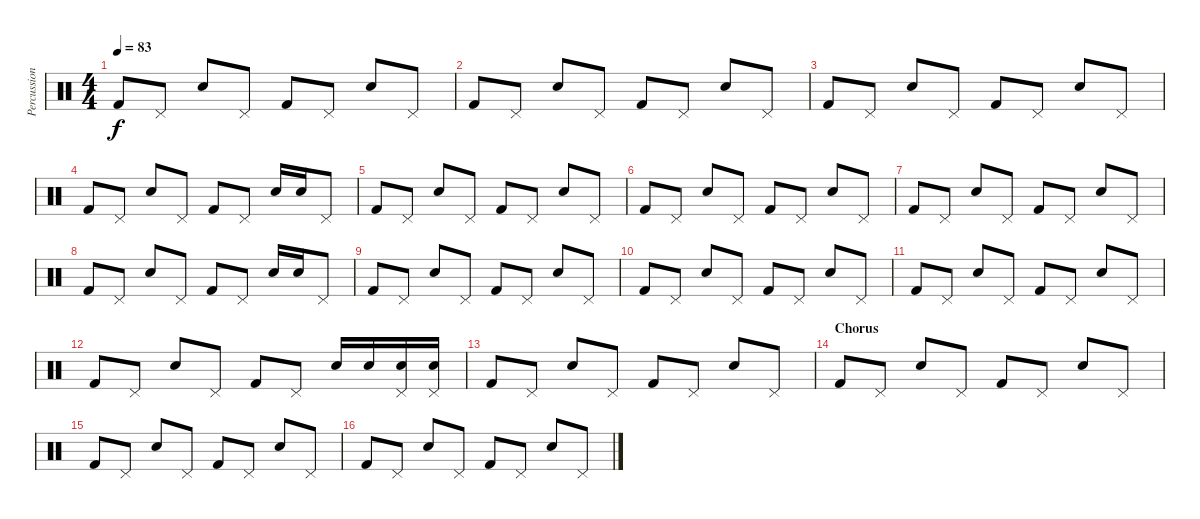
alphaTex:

\track ("Percussion" "Percussion") {instrument percussion}
\staff {score}
\articulation defaults
\ts (4 4)
\tempo 83
\clef neutral
\ks c "Kick (hit) 2".8{dy f} "Pedal Hi-Hat (hit)".8 "Electric Snare (hit)".8 "Pedal Hi-Hat (hit)".8 "Kick (hit) 2".8 "Pedal Hi-Hat (hit)".8 "Electric Snare (hit)".8 "Pedal Hi-Hat (hit)".8
|
"Kick (hit) 2".8 "Pedal Hi-Hat (hit)".8 "Electric Snare (hit)".8 "Pedal Hi-Hat (hit)".8 "Kick (hit) 2".8 "Pedal Hi-Hat (hit)".8 "Electric Snare (hit)".8 "Pedal Hi-Hat (hit)".8 |
"Kick (hit) 2".8 "Pedal Hi-Hat (hit)".8 "Electric Snare (hit)".8 "Pedal Hi-Hat (hit)".8 "Kick (hit) 2".8 "Pedal Hi-Hat (hit)".8 "Electric Snare (hit)".8 "Pedal Hi-Hat (hit)".8 |
"Kick (hit) 2".8 "Pedal Hi-Hat (hit)".8 "Electric Snare (hit)".8 "Pedal Hi-Hat (hit)".8 "Kick (hit) 2".8 "Pedal Hi-Hat (hit)".8 "Electric Snare (hit)".16 "Electric Snare (hit)".16 "Pedal Hi-Hat (hit)".8 |
"Kick (hit) 2".8 "Pedal Hi-Hat (hit)".8 "Electric Snare (hit)".8 "Pedal Hi-Hat (hit)".8 "Kick (hit) 2".8 "Pedal Hi-Hat (hit)".8 "Electric Snare (hit)".8 "Pedal Hi-Hat (hit)".8 |
"Kick (hit) 2".8 "Pedal Hi-Hat (hit)".8 "Electric Snare (hit)".8 "Pedal Hi-Hat (hit)".8 "Kick (hit) 2".8 "Pedal Hi-Hat (hit)".8 "Electric Snare (hit)".8 "Pedal Hi-Hat (hit)".8 |
"Kick (hit) 2".8 "Pedal Hi-Hat (hit)".8 "Electric Snare (hit)".8 "Pedal Hi-Hat (hit)".8 "Kick (hit) 2".8 "Pedal Hi-Hat (hit)".8 "Electric Snare (hit)".8 "Pedal Hi-Hat (hit)".8 |
"Kick (hit) 2".8 "Pedal Hi-Hat (hit)".8 "Electric Snare (hit)".8 "Pedal Hi-Hat (hit)".8 "Kick (hit) 2".8 "Pedal Hi-Hat (hit)".8 "Electric Snare (hit)".16 "Electric Snare (hit)".16 "Pedal Hi-Hat (hit)".8 |
"Kick (hit) 2".8 "Pedal Hi-Hat (hit)".8 "Electric Snare (hit)".8 "Pedal Hi-Hat (hit)".8 "Kick (hit) 2".8 "Pedal Hi-Hat (hit)".8 "Electric Snare (hit)".8 "Pedal Hi-Hat (hit)".8 |
"Kick (hit) 2".8 "Pedal Hi-Hat (hit)".8 "Electric Snare (hit)".8 "Pedal Hi-Hat (hit)".8 "Kick (hit) 2".8 "Pedal Hi-Hat (hit)".8 "Electric Snare (hit)".8 "Pedal Hi-Hat (hit)".8 |
"Kick (hit) 2".8 "Pedal Hi-Hat (hit)".8 "Electric Snare (hit)".8 "Pedal Hi-Hat (hit)".8 "Kick (hit) 2".8 "Pedal Hi-Hat (hit)".8 "Electric Snare (hit)".8 "Pedal Hi-Hat (hit)".8 |
"Kick (hit) 2".8 "Pedal Hi-Hat (hit)".8 "Electric Snare (hit)".8 "Pedal Hi-Hat (hit)".8 "Kick (hit) 2".8 "Pedal Hi-Hat (hit)".8 "Electric Snare (hit)".16 "Electric Snare (hit)".16 ("Pedal Hi-Hat (hit)" "Electric Snare (hit)").16 ("Pedal Hi-Hat (hit)" "Electric Snare (hit)").16 |
"Kick (hit) 2".8 "Pedal Hi-Hat (hit)".8 "Electric Snare (hit)".8 "Pedal Hi-Hat (hit)".8 "Kick (hit) 2".8 "Pedal Hi-Hat (hit)".8 "Electric Snare (hit)".8 "Pedal Hi-Hat (hit)".8 |
\section ("" "Chorus")
"Kick (hit) 2".8 "Pedal Hi-Hat (hit)".8 "Electric Snare (hit)".8 "Pedal Hi-Hat (hit)".8 "Kick (hit) 2".8 "Pedal Hi-Hat (hit)".8 "Electric Snare (hit)".8 "Pedal Hi-Hat (hit)".8 |
"Kick (hit) 2".8 "Pedal Hi-Hat (hit)".8 "Electric Snare (hit)".8 "Pedal Hi-Hat (hit)".8 "Kick (hit) 2".8 "Pedal Hi-Hat (hit)".8 "Electric Snare (hit)".8 "Pedal Hi-Hat (hit)".8 |
"Kick (hit) 2".8 "Pedal Hi-Hat (hit)".8 "Electric Snare (hit)".8 "Pedal Hi-Hat (hit)".8 "Kick (hit) 2".8 "Pedal Hi-Hat (hit)".8 "Electric Snare (hit)".8 "Pedal Hi-Hat (hit)".8
